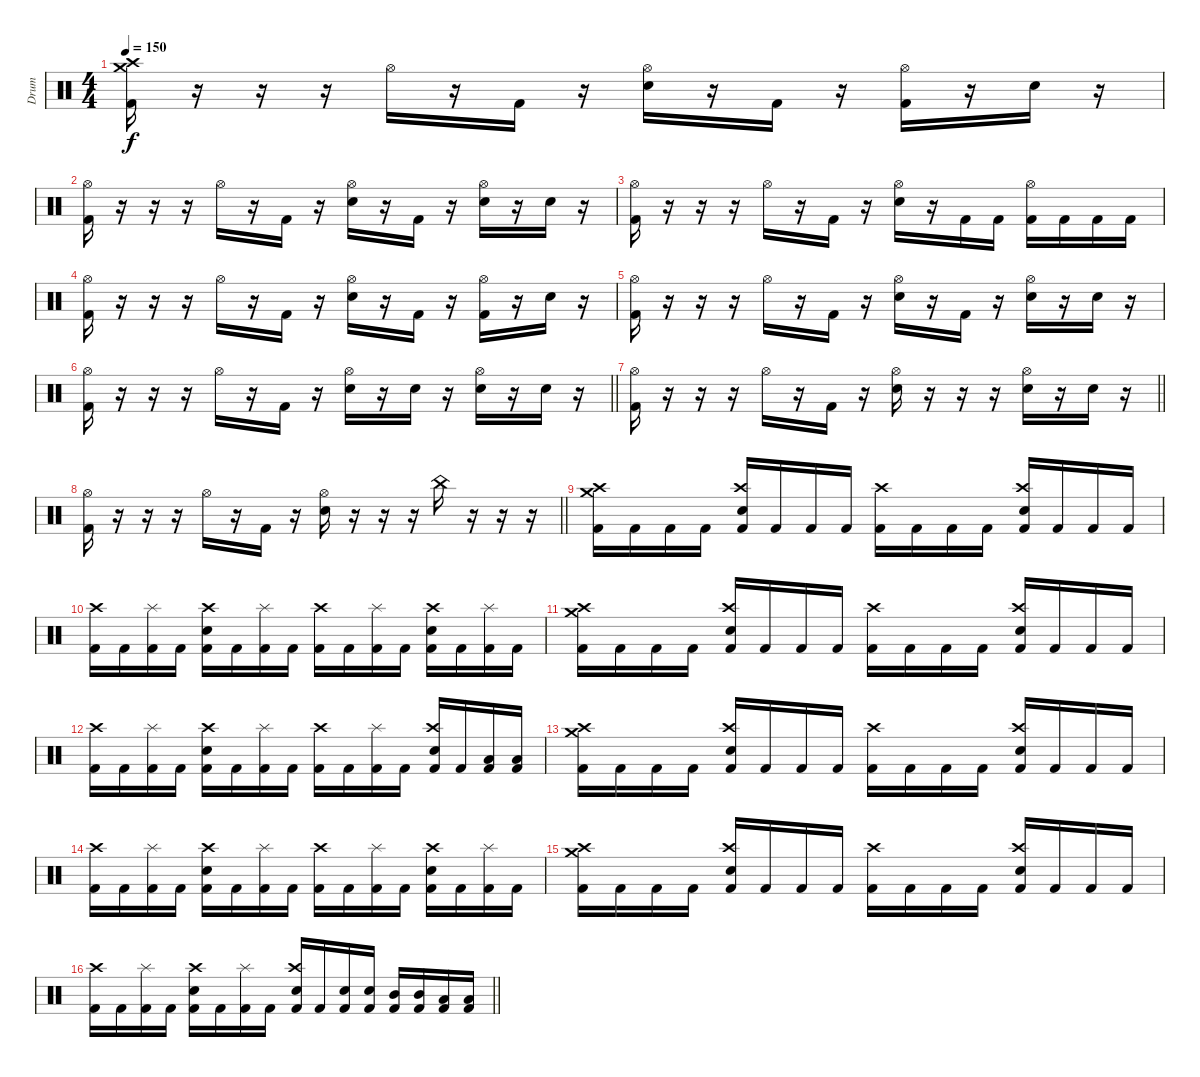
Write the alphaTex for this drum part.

\track ("Drum" "Drum") {instrument percussion}
\staff {score}
\articulation defaults
\ts (4 4)
\tempo 150
\clef neutral
\ks c
("Kick (hit) 2" "Crash high (hit)" "Crash medium (hit)").16{dy f} r.16 r.16 r.16 "Hi-Hat (open)".16 r.16 "Kick (hit) 2".16 r.16 ("Snare (hit) 2" "Hi-Hat (open)").16 r.16 "Kick (hit) 2".16 r.16 ("Kick (hit) 2" "Hi-Hat (open)").16 r.16 "Snare (hit) 2".16 r.16 |
("Kick (hit) 2" "Hi-Hat (open)").16 r.16 r.16 r.16 "Hi-Hat (open)".16 r.16 "Kick (hit) 2".16 r.16 ("Snare (hit) 2" "Hi-Hat (open)").16 r.16 "Kick (hit) 2".16 r.16 ("Snare (hit) 2" "Hi-Hat (open)").16 r.16 "Snare (hit) 2".16 r.16 |
("Kick (hit) 2" "Hi-Hat (open)").16 r.16 r.16 r.16 "Hi-Hat (open)".16 r.16 "Kick (hit) 2".16 r.16 ("Snare (hit) 2" "Hi-Hat (open)").16 r.16 "Kick (hit) 2".16 "Kick (hit) 2".16 ("Kick (hit) 2" "Hi-Hat (open)").16 "Kick (hit) 2".16 "Kick (hit) 2".16 "Kick (hit) 2".16 |
("Kick (hit) 2" "Hi-Hat (open)").16 r.16 r.16 r.16 "Hi-Hat (open)".16 r.16 "Kick (hit) 2".16 r.16 ("Snare (hit) 2" "Hi-Hat (open)").16 r.16 "Kick (hit) 2".16 r.16 ("Kick (hit) 2" "Hi-Hat (open)").16 r.16 "Snare (hit) 2".16 r.16 |
("Kick (hit) 2" "Hi-Hat (open)").16 r.16 r.16 r.16 "Hi-Hat (open)".16 r.16 "Kick (hit) 2".16 r.16 ("Snare (hit) 2" "Hi-Hat (open)").16 r.16 "Kick (hit) 2".16 r.16 ("Snare (hit) 2" "Hi-Hat (open)").16 r.16 "Snare (hit) 2".16 r.16 |
\barLineRight lightlight
("Kick (hit) 2" "Hi-Hat (open)").16 r.16 r.16 r.16 "Hi-Hat (open)".16 r.16 "Kick (hit) 2".16 r.16 ("Snare (hit) 2" "Hi-Hat (open)").16 r.16 "Snare (hit) 2".16 r.16 ("Snare (hit) 2" "Hi-Hat (open)").16 r.16 "Snare (hit) 2".16 r.16 |
\barLineRight lightlight
("Kick (hit) 2" "Hi-Hat (open)").16 r.16 r.16 r.16 "Hi-Hat (open)".16 r.16 "Kick (hit) 2".16 r.16 ("Snare (hit) 2" "Hi-Hat (open)").16 r.16 r.16 r.16 ("Snare (hit) 2" "Hi-Hat (open)").16 r.16 "Snare (hit) 2".16 r.16 |
\barLineRight lightlight
("Kick (hit) 2" "Hi-Hat (open)").16 r.16 r.16 r.16 "Hi-Hat (open)".16 r.16 "Kick (hit) 2".16 r.16 ("Snare (hit) 2" "Hi-Hat (open)").16 r.16 r.16 r.16 "China (hit)".16 r.16 r.16 r.16 |
\section ("" "")
("Crash high (hit)" "Crash medium (hit)" "Kick (hit) 2").16 "Kick (hit) 2".16 "Kick (hit) 2".16 "Kick (hit) 2".16 ("Crash high (hit)" "Snare (hit) 2" "Kick (hit) 2").16 "Kick (hit) 2".16 "Kick (hit) 2".16 "Kick (hit) 2".16 ("Crash high (hit)" "Kick (hit) 2").16 "Kick (hit) 2".16 "Kick (hit) 2".16 "Kick (hit) 2".16 ("Crash high (hit)" "Snare (hit) 2" "Kick (hit) 2").16 "Kick (hit) 2".16 "Kick (hit) 2".16 "Kick (hit) 2".16 |
("Crash high (hit)" "Kick (hit) 2").16 "Kick (hit) 2".16 ("Splash (hit)" "Kick (hit) 2").16 "Kick (hit) 2".16 ("Crash high (hit)" "Snare (hit) 2" "Kick (hit) 2").16 "Kick (hit) 2".16 ("Splash (hit)" "Kick (hit) 2").16 "Kick (hit) 2".16 ("Crash high (hit)" "Kick (hit) 2").16 "Kick (hit) 2".16 ("Splash (hit)" "Kick (hit) 2").16 "Kick (hit) 2".16 ("Crash high (hit)" "Snare (hit) 2" "Kick (hit) 2").16 "Kick (hit) 2".16 ("Splash (hit)" "Kick (hit) 2").16 "Kick (hit) 2".16 |
("Crash high (hit)" "Crash medium (hit)" "Kick (hit) 2").16 "Kick (hit) 2".16 "Kick (hit) 2".16 "Kick (hit) 2".16 ("Crash high (hit)" "Snare (hit) 2" "Kick (hit) 2").16 "Kick (hit) 2".16 "Kick (hit) 2".16 "Kick (hit) 2".16 ("Crash high (hit)" "Kick (hit) 2").16 "Kick (hit) 2".16 "Kick (hit) 2".16 "Kick (hit) 2".16 ("Crash high (hit)" "Snare (hit) 2" "Kick (hit) 2").16 "Kick (hit) 2".16 "Kick (hit) 2".16 "Kick (hit) 2".16 |
("Crash high (hit)" "Kick (hit) 2").16 "Kick (hit) 2".16 ("Splash (hit)" "Kick (hit) 2").16 "Kick (hit) 2".16 ("Crash high (hit)" "Snare (hit) 2" "Kick (hit) 2").16 "Kick (hit) 2".16 ("Splash (hit)" "Kick (hit) 2").16 "Kick (hit) 2".16 ("Crash high (hit)" "Kick (hit) 2").16 "Kick (hit) 2".16 ("Splash (hit)" "Kick (hit) 2").16 "Kick (hit) 2".16 ("Crash high (hit)" "Snare (hit) 2" "Kick (hit) 2").16 "Kick (hit) 2".16 ("Low Tom (hit)" "Kick (hit) 2").16 ("Low Tom (hit)" "Kick (hit) 2").16 |
("Crash high (hit)" "Crash medium (hit)" "Kick (hit) 2").16 "Kick (hit) 2".16 "Kick (hit) 2".16 "Kick (hit) 2".16 ("Crash high (hit)" "Snare (hit) 2" "Kick (hit) 2").16 "Kick (hit) 2".16 "Kick (hit) 2".16 "Kick (hit) 2".16 ("Crash high (hit)" "Kick (hit) 2").16 "Kick (hit) 2".16 "Kick (hit) 2".16 "Kick (hit) 2".16 ("Crash high (hit)" "Snare (hit) 2" "Kick (hit) 2").16 "Kick (hit) 2".16 "Kick (hit) 2".16 "Kick (hit) 2".16 |
("Crash high (hit)" "Kick (hit) 2").16 "Kick (hit) 2".16 ("Splash (hit)" "Kick (hit) 2").16 "Kick (hit) 2".16 ("Crash high (hit)" "Snare (hit) 2" "Kick (hit) 2").16 "Kick (hit) 2".16 ("Splash (hit)" "Kick (hit) 2").16 "Kick (hit) 2".16 ("Crash high (hit)" "Kick (hit) 2").16 "Kick (hit) 2".16 ("Splash (hit)" "Kick (hit) 2").16 "Kick (hit) 2".16 ("Crash high (hit)" "Snare (hit) 2" "Kick (hit) 2").16 "Kick (hit) 2".16 ("Splash (hit)" "Kick (hit) 2").16 "Kick (hit) 2".16 |
("Crash high (hit)" "Crash medium (hit)" "Kick (hit) 2").16 "Kick (hit) 2".16 "Kick (hit) 2".16 "Kick (hit) 2".16 ("Crash high (hit)" "Snare (hit) 2" "Kick (hit) 2").16 "Kick (hit) 2".16 "Kick (hit) 2".16 "Kick (hit) 2".16 ("Crash high (hit)" "Kick (hit) 2").16 "Kick (hit) 2".16 "Kick (hit) 2".16 "Kick (hit) 2".16 ("Crash high (hit)" "Snare (hit) 2" "Kick (hit) 2").16 "Kick (hit) 2".16 "Kick (hit) 2".16 "Kick (hit) 2".16 |
\barLineRight lightlight
("Crash high (hit)" "Kick (hit) 2").16 "Kick (hit) 2".16 ("Splash (hit)" "Kick (hit) 2").16 "Kick (hit) 2".16 ("Crash high (hit)" "Snare (hit) 2" "Kick (hit) 2").16 "Kick (hit) 2".16 ("Splash (hit)" "Kick (hit) 2").16 "Kick (hit) 2".16 ("Crash high (hit)" "Snare (hit) 2" "Kick (hit) 2").16 "Kick (hit) 2".16 ("Snare (hit) 2" "Kick (hit) 2").16 ("Snare (hit) 2" "Kick (hit) 2").16 ("Mid Tom (hit)" "Kick (hit) 2").16 ("Mid Tom (hit)" "Kick (hit) 2").16 ("Low Tom (hit)" "Kick (hit) 2").16 ("Low Tom (hit)" "Kick (hit) 2").16
